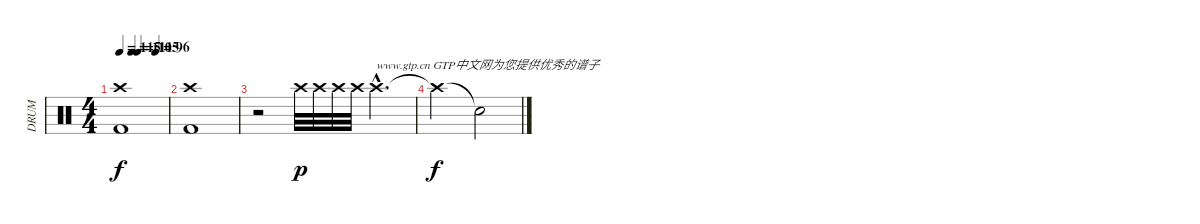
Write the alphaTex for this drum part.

\track ("DRUM" "DRUM") {instrument percussion}
\staff {score}
\articulation defaults
\ts (4 4)
\tempo 115
\tempo (111 0.25)
\tempo (105 0.375)
\tempo (96 0.75)
\clef neutral
\ks c
("Crash high (hit)" "Kick (hit) 2").1{dy f} |
("Crash high (hit)" "Kick (hit) 2").1 |
r.2 "Crash high (hit)".32{dy p} "Crash high (hit)".32 "Crash high (hit)".32 "Crash high (hit)".32 "Crash high (hit)"{hac}.4{d txt "www.gtp.cn GTP中文网为您提供优秀的谱子"} |
"Crash high (hit)"{t}.2{dy f} "Snare (hit)"{t}.2
